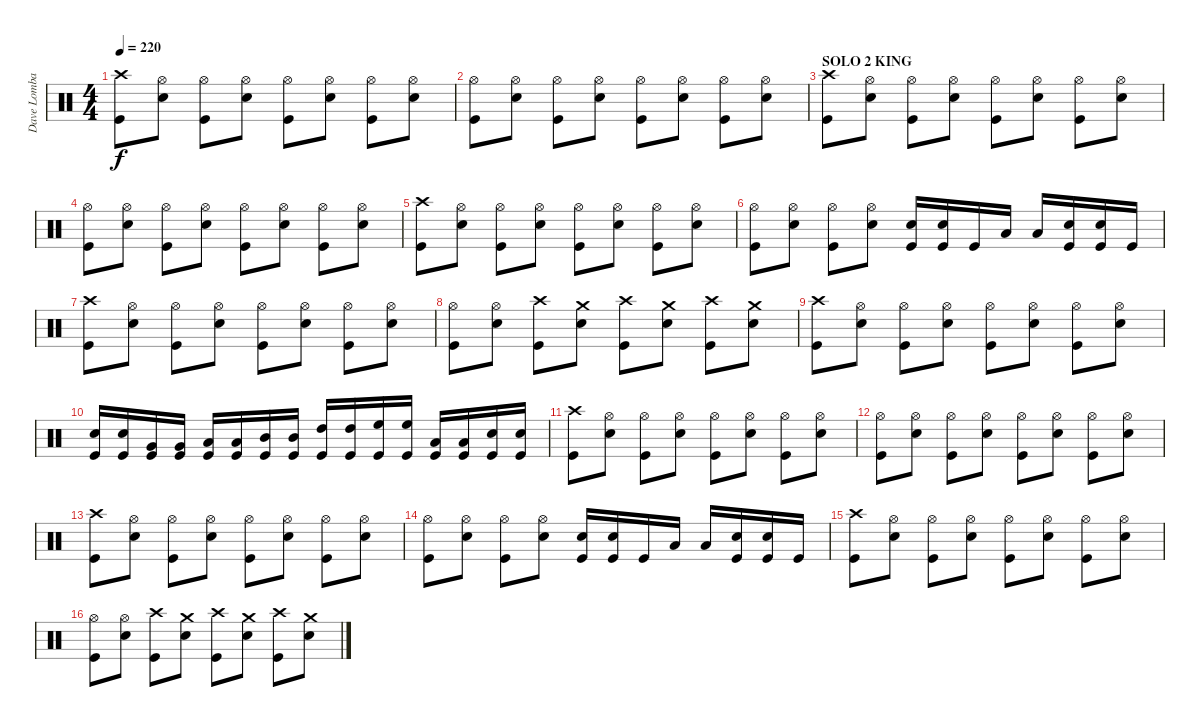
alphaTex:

\track ("Dave Lombardo" "Dave Lomba") {instrument percussion}
\staff {score}
\articulation defaults
\ts (4 4)
\tempo 220
\clef neutral
\ks c
("Crash high (hit)" "Kick (hit)").8{dy f} ("Hi-Hat (open)" "Snare (hit) 2").8 ("Hi-Hat (open)" "Kick (hit)").8 ("Hi-Hat (open)" "Snare (hit) 2").8 ("Hi-Hat (open)" "Kick (hit)").8 ("Hi-Hat (open)" "Snare (hit) 2").8 ("Hi-Hat (open)" "Kick (hit)").8 ("Hi-Hat (open)" "Snare (hit) 2").8 |
("Hi-Hat (open)" "Kick (hit)").8 ("Hi-Hat (open)" "Snare (hit) 2").8 ("Hi-Hat (open)" "Kick (hit)").8 ("Hi-Hat (open)" "Snare (hit) 2").8 ("Hi-Hat (open)" "Kick (hit)").8 ("Hi-Hat (open)" "Snare (hit) 2").8 ("Hi-Hat (open)" "Kick (hit)").8 ("Hi-Hat (open)" "Snare (hit) 2").8 |
\section ("" "SOLO 2 KING")
("Crash high (hit)" "Kick (hit)").8 ("Hi-Hat (open)" "Snare (hit) 2").8 ("Hi-Hat (open)" "Kick (hit)").8 ("Hi-Hat (open)" "Snare (hit) 2").8 ("Hi-Hat (open)" "Kick (hit)").8 ("Hi-Hat (open)" "Snare (hit) 2").8 ("Hi-Hat (open)" "Kick (hit)").8 ("Hi-Hat (open)" "Snare (hit) 2").8 |
("Hi-Hat (open)" "Kick (hit)").8 ("Hi-Hat (open)" "Snare (hit) 2").8 ("Hi-Hat (open)" "Kick (hit)").8 ("Hi-Hat (open)" "Snare (hit) 2").8 ("Hi-Hat (open)" "Kick (hit)").8 ("Hi-Hat (open)" "Snare (hit) 2").8 ("Hi-Hat (open)" "Kick (hit)").8 ("Hi-Hat (open)" "Snare (hit) 2").8 |
("Crash high (hit)" "Kick (hit)").8 ("Hi-Hat (open)" "Snare (hit) 2").8 ("Hi-Hat (open)" "Kick (hit)").8 ("Hi-Hat (open)" "Snare (hit) 2").8 ("Hi-Hat (open)" "Kick (hit)").8 ("Hi-Hat (open)" "Snare (hit) 2").8 ("Hi-Hat (open)" "Kick (hit)").8 ("Hi-Hat (open)" "Snare (hit) 2").8 |
("Hi-Hat (open)" "Kick (hit)").8 ("Hi-Hat (open)" "Snare (hit) 2").8 ("Hi-Hat (open)" "Kick (hit)").8 ("Hi-Hat (open)" "Snare (hit) 2").8 ("Kick (hit)" "Snare (hit) 2").16 ("Kick (hit)" "Snare (hit) 2").16 "Kick (hit)".16 "Low Tom (hit)".16 "Low Tom (hit)".16 ("Kick (hit)" "Snare (hit) 2").16 ("Kick (hit)" "Snare (hit) 2").16 "Kick (hit)".16 |
("Crash high (hit)" "Kick (hit)").8 ("Hi-Hat (open)" "Snare (hit) 2").8 ("Hi-Hat (open)" "Kick (hit)").8 ("Hi-Hat (open)" "Snare (hit) 2").8 ("Hi-Hat (open)" "Kick (hit)").8 ("Hi-Hat (open)" "Snare (hit) 2").8 ("Hi-Hat (open)" "Kick (hit)").8 ("Hi-Hat (open)" "Snare (hit) 2").8 |
("Hi-Hat (open)" "Kick (hit)").8 ("Hi-Hat (open)" "Snare (hit) 2").8 ("Crash high (hit)" "Kick (hit)").8 ("Crash medium (hit)" "Snare (hit) 2").8 ("Crash high (hit)" "Kick (hit)").8 ("Crash medium (hit)" "Snare (hit) 2").8 ("Crash high (hit)" "Kick (hit)").8 ("Crash medium (hit)" "Snare (hit) 2").8 |
("Crash high (hit)" "Kick (hit)").8 ("Hi-Hat (open)" "Snare (hit) 2").8 ("Hi-Hat (open)" "Kick (hit)").8 ("Hi-Hat (open)" "Snare (hit) 2").8 ("Hi-Hat (open)" "Kick (hit)").8 ("Hi-Hat (open)" "Snare (hit) 2").8 ("Hi-Hat (open)" "Kick (hit)").8 ("Hi-Hat (open)" "Snare (hit) 2").8 |
("Kick (hit)" "Snare (hit) 2").16 ("Kick (hit)" "Snare (hit) 2").16 ("Kick (hit)" "Very Low Tom (hit)").16 ("Kick (hit)" "Very Low Tom (hit)").16 ("Kick (hit)" "Low Tom (hit)").16 ("Kick (hit)" "Low Tom (hit)").16 ("Kick (hit)" "Mid Tom (hit)").16 ("Kick (hit)" "Mid Tom (hit)").16 ("Kick (hit)" "High Tom (hit)").16 ("Kick (hit)" "High Tom (hit)").16 ("Kick (hit)" "High Floor Tom (hit)").16 ("Kick (hit)" "High Floor Tom (hit)").16 ("Kick (hit)" "Low Floor Tom (hit)").16 ("Kick (hit)" "Low Floor Tom (hit)").16 ("Kick (hit)" "Snare (hit) 2").16 ("Kick (hit)" "Snare (hit) 2").16 |
("Crash high (hit)" "Kick (hit)").8 ("Hi-Hat (open)" "Snare (hit) 2").8 ("Hi-Hat (open)" "Kick (hit)").8 ("Hi-Hat (open)" "Snare (hit) 2").8 ("Hi-Hat (open)" "Kick (hit)").8 ("Hi-Hat (open)" "Snare (hit) 2").8 ("Hi-Hat (open)" "Kick (hit)").8 ("Hi-Hat (open)" "Snare (hit) 2").8 |
("Hi-Hat (open)" "Kick (hit)").8 ("Hi-Hat (open)" "Snare (hit) 2").8 ("Hi-Hat (open)" "Kick (hit)").8 ("Hi-Hat (open)" "Snare (hit) 2").8 ("Hi-Hat (open)" "Kick (hit)").8 ("Hi-Hat (open)" "Snare (hit) 2").8 ("Hi-Hat (open)" "Kick (hit)").8 ("Hi-Hat (open)" "Snare (hit) 2").8 |
("Crash high (hit)" "Kick (hit)").8 ("Hi-Hat (open)" "Snare (hit) 2").8 ("Hi-Hat (open)" "Kick (hit)").8 ("Hi-Hat (open)" "Snare (hit) 2").8 ("Hi-Hat (open)" "Kick (hit)").8 ("Hi-Hat (open)" "Snare (hit) 2").8 ("Hi-Hat (open)" "Kick (hit)").8 ("Hi-Hat (open)" "Snare (hit) 2").8 |
("Hi-Hat (open)" "Kick (hit)").8 ("Hi-Hat (open)" "Snare (hit) 2").8 ("Hi-Hat (open)" "Kick (hit)").8 ("Hi-Hat (open)" "Snare (hit) 2").8 ("Kick (hit)" "Snare (hit) 2").16 ("Kick (hit)" "Snare (hit) 2").16 "Kick (hit)".16 "Low Tom (hit)".16 "Low Tom (hit)".16 ("Kick (hit)" "Snare (hit) 2").16 ("Kick (hit)" "Snare (hit) 2").16 "Kick (hit)".16 |
("Crash high (hit)" "Kick (hit)").8 ("Hi-Hat (open)" "Snare (hit) 2").8 ("Hi-Hat (open)" "Kick (hit)").8 ("Hi-Hat (open)" "Snare (hit) 2").8 ("Hi-Hat (open)" "Kick (hit)").8 ("Hi-Hat (open)" "Snare (hit) 2").8 ("Hi-Hat (open)" "Kick (hit)").8 ("Hi-Hat (open)" "Snare (hit) 2").8 |
("Hi-Hat (open)" "Kick (hit)").8 ("Hi-Hat (open)" "Snare (hit) 2").8 ("Crash high (hit)" "Kick (hit)").8 ("Crash medium (hit)" "Snare (hit) 2").8 ("Crash high (hit)" "Kick (hit)").8 ("Crash medium (hit)" "Snare (hit) 2").8 ("Crash high (hit)" "Kick (hit)").8 ("Crash medium (hit)" "Snare (hit) 2").8
